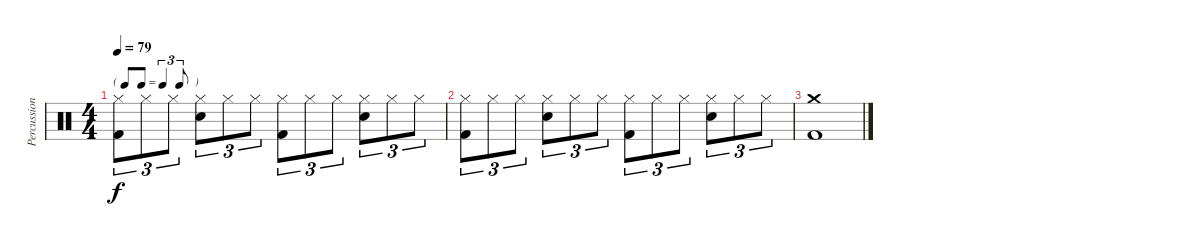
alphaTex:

\track ("Percussion" "Percussion") {instrument percussion}
\staff {score}
\articulation defaults
\ts (4 4)
\tf triplet8th
\tempo 79
\clef neutral
\ks c
("Hi-Hat (closed)" "Kick (hit) 2").8{tu (3 2) dy f} "Hi-Hat (closed)".8{tu (3 2)} "Hi-Hat (closed)".8{tu (3 2)} ("Hi-Hat (closed)" "Snare (hit) 2").8{tu (3 2)} "Hi-Hat (closed)".8{tu (3 2)} "Hi-Hat (closed)".8{tu (3 2)} ("Hi-Hat (closed)" "Kick (hit) 2").8{tu (3 2)} "Hi-Hat (closed)".8{tu (3 2)} "Hi-Hat (closed)".8{tu (3 2)} ("Hi-Hat (closed)" "Snare (hit) 2").8{tu (3 2)} "Hi-Hat (closed)".8{tu (3 2)} "Hi-Hat (closed)".8{tu (3 2)} |
("Hi-Hat (closed)" "Kick (hit) 2").8{tu (3 2)} "Hi-Hat (closed)".8{tu (3 2)} "Hi-Hat (closed)".8{tu (3 2)} ("Hi-Hat (closed)" "Snare (hit) 2").8{tu (3 2)} "Hi-Hat (closed)".8{tu (3 2)} "Hi-Hat (closed)".8{tu (3 2)} ("Hi-Hat (closed)" "Kick (hit) 2").8{tu (3 2)} "Hi-Hat (closed)".8{tu (3 2)} "Hi-Hat (closed)".8{tu (3 2)} ("Hi-Hat (closed)" "Snare (hit) 2").8{tu (3 2)} "Hi-Hat (closed)".8{tu (3 2)} "Hi-Hat (closed)".8{tu (3 2)} |
("Crash medium (hit)" "Kick (hit) 2").1
